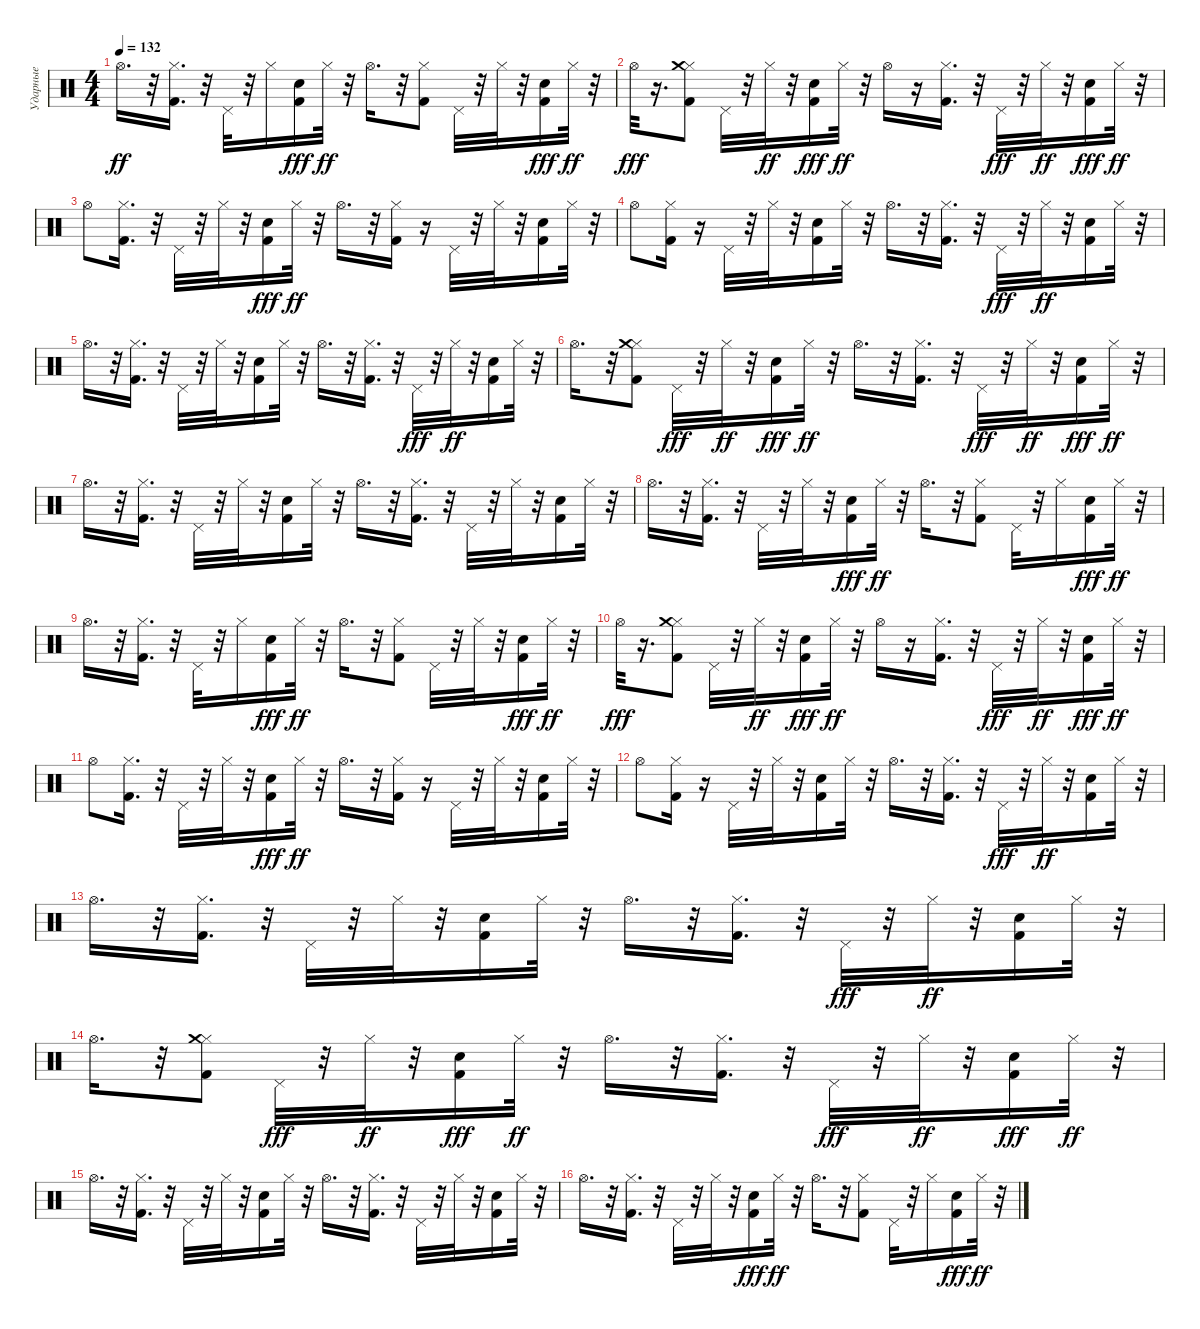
\track ("Ударные" "Ударные") {instrument percussion}
\staff {score}
\articulation defaults
\ts (4 4)
\tempo 132
\clef neutral
\ks c "Hi-Hat (open)".16{d dy ff}
r.32 ("Kick (hit) 2" "Hi-Hat (closed)").16{d} r.32 "Pedal Hi-Hat (hit)".32 r.32 "Hi-Hat (closed)".16 ("Kick (hit) 2" "Snare (hit) 2").16{dy fff} "Hi-Hat (closed)".32{dy ff} r.32 "Hi-Hat (open)".16{d} r.32 ("Kick (hit) 2" "Hi-Hat (closed)").8 "Pedal Hi-Hat (hit)".32 r.32 "Hi-Hat (closed)".32 r.32 ("Kick (hit) 2" "Snare (hit) 2").16{dy fff} "Hi-Hat (closed)".32{dy ff} r.32 |
"Hi-Hat (open)".32{dy fff} r.16{d} ("Kick (hit) 2" "Hi-Hat (closed)" "Crash medium (hit)").8 "Pedal Hi-Hat (hit)".32 r.32 "Hi-Hat (closed)".32{dy ff} r.32 ("Kick (hit) 2" "Snare (hit) 2").16{dy fff} "Hi-Hat (closed)".32{dy ff} r.32 "Hi-Hat (open)".16 r.16 ("Kick (hit) 2" "Hi-Hat (closed)").16{d} r.32 "Pedal Hi-Hat (hit)".32{dy fff} r.32 "Hi-Hat (closed)".32{dy ff} r.32 ("Kick (hit) 2" "Snare (hit) 2").16{dy fff} "Hi-Hat (closed)".32{dy ff} r.32 |
"Hi-Hat (open)".8 ("Kick (hit) 2" "Hi-Hat (closed)").16{d} r.32 "Pedal Hi-Hat (hit)".32 r.32 "Hi-Hat (closed)".32 r.32 ("Kick (hit) 2" "Snare (hit) 2").16{dy fff} "Hi-Hat (closed)".32{dy ff} r.32 "Hi-Hat (open)".16{d} r.32 ("Kick (hit) 2" "Hi-Hat (closed)").16 r.16 "Pedal Hi-Hat (hit)".32 r.32 "Hi-Hat (closed)".32 r.32 ("Kick (hit) 2" "Snare (hit) 2").16 "Hi-Hat (closed)".32 r.32 |
"Hi-Hat (open)".8 ("Kick (hit) 2" "Hi-Hat (closed)").16 r.16 "Pedal Hi-Hat (hit)".32 r.32 "Hi-Hat (closed)".32 r.32 ("Kick (hit) 2" "Snare (hit) 2").16 "Hi-Hat (closed)".32 r.32 "Hi-Hat (open)".16{d} r.32 ("Kick (hit) 2" "Hi-Hat (closed)").16{d} r.32 "Pedal Hi-Hat (hit)".32{dy fff} r.32 "Hi-Hat (closed)".32{dy ff} r.32 ("Kick (hit) 2" "Snare (hit) 2").16 "Hi-Hat (closed)".32 r.32 |
"Hi-Hat (open)".16{d} r.32 ("Kick (hit) 2" "Hi-Hat (closed)").16{d} r.32 "Pedal Hi-Hat (hit)".32 r.32 "Hi-Hat (closed)".32 r.32 ("Kick (hit) 2" "Snare (hit) 2").16 "Hi-Hat (closed)".32 r.32 "Hi-Hat (open)".16{d} r.32 ("Kick (hit) 2" "Hi-Hat (closed)").16{d} r.32 "Pedal Hi-Hat (hit)".32{dy fff} r.32 "Hi-Hat (closed)".32{dy ff} r.32 ("Kick (hit) 2" "Snare (hit) 2").16 "Hi-Hat (closed)".32 r.32 |
"Hi-Hat (open)".16{d} r.32 ("Kick (hit) 2" "Hi-Hat (closed)" "Crash medium (hit)").8 "Pedal Hi-Hat (hit)".32{dy fff} r.32 "Hi-Hat (closed)".32{dy ff} r.32 ("Kick (hit) 2" "Snare (hit) 2").16{dy fff} "Hi-Hat (closed)".32{dy ff} r.32 "Hi-Hat (open)".16{d} r.32 ("Kick (hit) 2" "Hi-Hat (closed)").16{d} r.32 "Pedal Hi-Hat (hit)".32{dy fff} r.32 "Hi-Hat (closed)".32{dy ff} r.32 ("Kick (hit) 2" "Snare (hit) 2").16{dy fff} "Hi-Hat (closed)".32{dy ff} r.32 |
"Hi-Hat (open)".16{d} r.32 ("Kick (hit) 2" "Hi-Hat (closed)").16{d} r.32 "Pedal Hi-Hat (hit)".32 r.32 "Hi-Hat (closed)".32 r.32 ("Kick (hit) 2" "Snare (hit) 2").16 "Hi-Hat (closed)".32 r.32 "Hi-Hat (open)".16{d} r.32 ("Kick (hit) 2" "Hi-Hat (closed)").16{d} r.32 "Pedal Hi-Hat (hit)".32 r.32 "Hi-Hat (closed)".32 r.32 ("Kick (hit) 2" "Snare (hit) 2").16 "Hi-Hat (closed)".32 r.32 |
"Hi-Hat (open)".16{d} r.32 ("Kick (hit) 2" "Hi-Hat (closed)").16{d} r.32 "Pedal Hi-Hat (hit)".32 r.32 "Hi-Hat (closed)".32 r.32 ("Kick (hit) 2" "Snare (hit) 2").16{dy fff} "Hi-Hat (closed)".32{dy ff} r.32 "Hi-Hat (open)".16{d} r.32 ("Kick (hit) 2" "Hi-Hat (closed)").8 "Pedal Hi-Hat (hit)".32 r.32 "Hi-Hat (closed)".16 ("Kick (hit) 2" "Snare (hit) 2").16{dy fff} "Hi-Hat (closed)".32{dy ff} r.32 |
"Hi-Hat (open)".16{d} r.32 ("Kick (hit) 2" "Hi-Hat (closed)").16{d} r.32 "Pedal Hi-Hat (hit)".32 r.32 "Hi-Hat (closed)".16 ("Kick (hit) 2" "Snare (hit) 2").16{dy fff} "Hi-Hat (closed)".32{dy ff} r.32 "Hi-Hat (open)".16{d} r.32 ("Kick (hit) 2" "Hi-Hat (closed)").8 "Pedal Hi-Hat (hit)".32 r.32 "Hi-Hat (closed)".32 r.32 ("Kick (hit) 2" "Snare (hit) 2").16{dy fff} "Hi-Hat (closed)".32{dy ff} r.32 |
"Hi-Hat (open)".32{dy fff} r.16{d} ("Kick (hit) 2" "Hi-Hat (closed)" "Crash medium (hit)").8 "Pedal Hi-Hat (hit)".32 r.32 "Hi-Hat (closed)".32{dy ff} r.32 ("Kick (hit) 2" "Snare (hit) 2").16{dy fff} "Hi-Hat (closed)".32{dy ff} r.32 "Hi-Hat (open)".16 r.16 ("Kick (hit) 2" "Hi-Hat (closed)").16{d} r.32 "Pedal Hi-Hat (hit)".32{dy fff} r.32 "Hi-Hat (closed)".32{dy ff} r.32 ("Kick (hit) 2" "Snare (hit) 2").16{dy fff} "Hi-Hat (closed)".32{dy ff} r.32 |
"Hi-Hat (open)".8 ("Kick (hit) 2" "Hi-Hat (closed)").16{d} r.32 "Pedal Hi-Hat (hit)".32 r.32 "Hi-Hat (closed)".32 r.32 ("Kick (hit) 2" "Snare (hit) 2").16{dy fff} "Hi-Hat (closed)".32{dy ff} r.32 "Hi-Hat (open)".16{d} r.32 ("Kick (hit) 2" "Hi-Hat (closed)").16 r.16 "Pedal Hi-Hat (hit)".32 r.32 "Hi-Hat (closed)".32 r.32 ("Kick (hit) 2" "Snare (hit) 2").16 "Hi-Hat (closed)".32 r.32 |
"Hi-Hat (open)".8 ("Kick (hit) 2" "Hi-Hat (closed)").16 r.16 "Pedal Hi-Hat (hit)".32 r.32 "Hi-Hat (closed)".32 r.32 ("Kick (hit) 2" "Snare (hit) 2").16 "Hi-Hat (closed)".32 r.32 "Hi-Hat (open)".16{d} r.32 ("Kick (hit) 2" "Hi-Hat (closed)").16{d} r.32 "Pedal Hi-Hat (hit)".32{dy fff} r.32 "Hi-Hat (closed)".32{dy ff} r.32 ("Kick (hit) 2" "Snare (hit) 2").16 "Hi-Hat (closed)".32 r.32 |
"Hi-Hat (open)".16{d} r.32 ("Kick (hit) 2" "Hi-Hat (closed)").16{d} r.32 "Pedal Hi-Hat (hit)".32 r.32 "Hi-Hat (closed)".32 r.32 ("Kick (hit) 2" "Snare (hit) 2").16 "Hi-Hat (closed)".32 r.32 "Hi-Hat (open)".16{d} r.32 ("Kick (hit) 2" "Hi-Hat (closed)").16{d} r.32 "Pedal Hi-Hat (hit)".32{dy fff} r.32 "Hi-Hat (closed)".32{dy ff} r.32 ("Kick (hit) 2" "Snare (hit) 2").16 "Hi-Hat (closed)".32 r.32 |
"Hi-Hat (open)".16{d} r.32 ("Kick (hit) 2" "Hi-Hat (closed)" "Crash medium (hit)").8 "Pedal Hi-Hat (hit)".32{dy fff} r.32 "Hi-Hat (closed)".32{dy ff} r.32 ("Kick (hit) 2" "Snare (hit) 2").16{dy fff} "Hi-Hat (closed)".32{dy ff} r.32 "Hi-Hat (open)".16{d} r.32 ("Kick (hit) 2" "Hi-Hat (closed)").16{d} r.32 "Pedal Hi-Hat (hit)".32{dy fff} r.32 "Hi-Hat (closed)".32{dy ff} r.32 ("Kick (hit) 2" "Snare (hit) 2").16{dy fff} "Hi-Hat (closed)".32{dy ff} r.32 |
"Hi-Hat (open)".16{d} r.32 ("Kick (hit) 2" "Hi-Hat (closed)").16{d} r.32 "Pedal Hi-Hat (hit)".32 r.32 "Hi-Hat (closed)".32 r.32 ("Kick (hit) 2" "Snare (hit) 2").16 "Hi-Hat (closed)".32 r.32 "Hi-Hat (open)".16{d} r.32 ("Kick (hit) 2" "Hi-Hat (closed)").16{d} r.32 "Pedal Hi-Hat (hit)".32 r.32 "Hi-Hat (closed)".32 r.32 ("Kick (hit) 2" "Snare (hit) 2").16 "Hi-Hat (closed)".32 r.32 |
"Hi-Hat (open)".16{d} r.32 ("Kick (hit) 2" "Hi-Hat (closed)").16{d} r.32 "Pedal Hi-Hat (hit)".32 r.32 "Hi-Hat (closed)".32 r.32 ("Kick (hit) 2" "Snare (hit) 2").16{dy fff} "Hi-Hat (closed)".32{dy ff} r.32 "Hi-Hat (open)".16{d} r.32 ("Kick (hit) 2" "Hi-Hat (closed)").8 "Pedal Hi-Hat (hit)".32 r.32 "Hi-Hat (closed)".16 ("Kick (hit) 2" "Snare (hit) 2").16{dy fff} "Hi-Hat (closed)".32{dy ff} r.32
